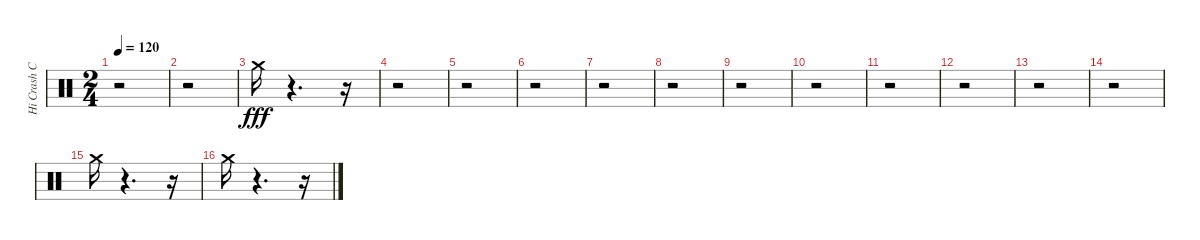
\track ("Hi Crash Cymbal (1) (1) (1) (1)" "Hi Crash C") {instrument percussion}
\staff {score}
\articulation defaults
\ts (2 4)
\tempo 120
\clef neutral
\ks c
r.2{dy fff} |
r.2 |
"Crash medium (hit)".16 r.4{d} r.16 |
r.2 |
r.2 |
r.2 |
r.2 |
r.2 |
r.2 |
r.2 |
r.2 |
r.2 |
r.2 |
r.2 |
"Crash medium (hit)".16 r.4{d} r.16 |
"Crash medium (hit)".16 r.4{d} r.16
